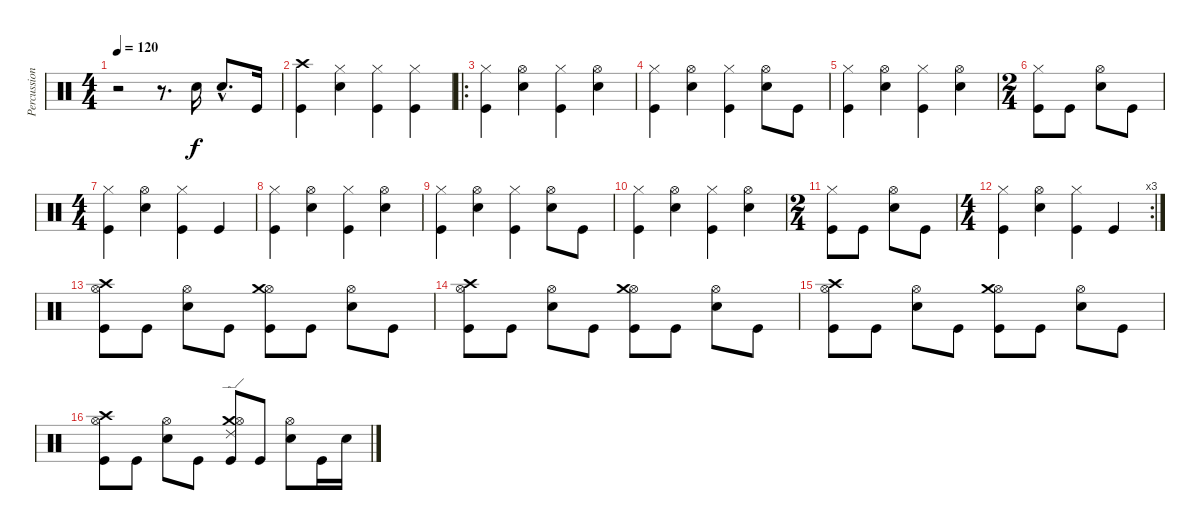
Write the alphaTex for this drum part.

\track ("Percussions" "Percussion") {instrument percussion}
\staff {score}
\articulation defaults
\ts (4 4)
\tempo 120
\clef neutral
\ks c
r.2{dy f} r.8{d} "Snare (hit) 2".16 "Snare (hit) 2"{hac}.8{d} "Kick (hit)".16 |
("Crash high (hit)" "Kick (hit)").4 ("Snare (hit) 2" "Hi-Hat (closed)").4 ("Kick (hit)" "Hi-Hat (closed)").4 ("Kick (hit)" "Hi-Hat (closed)").4 |
\ro
("Hi-Hat (closed)" "Kick (hit)").4 ("Snare (hit) 2" "Hi-Hat (open)").4 ("Hi-Hat (closed)" "Kick (hit)").4 ("Snare (hit) 2" "Hi-Hat (open)").4 |
("Hi-Hat (closed)" "Kick (hit)").4 ("Snare (hit) 2" "Hi-Hat (open)").4 ("Kick (hit)" "Hi-Hat (closed)").4 ("Snare (hit) 2" "Hi-Hat (open)").8 "Kick (hit)".8 |
("Hi-Hat (closed)" "Kick (hit)").4 ("Snare (hit) 2" "Hi-Hat (open)").4 ("Hi-Hat (closed)" "Kick (hit)").4 ("Snare (hit) 2" "Hi-Hat (open)").4 |
\ts (2 4)
("Kick (hit)" "Hi-Hat (closed)").8 "Kick (hit)".8 ("Snare (hit) 2" "Hi-Hat (open)").8 "Kick (hit)".8 |
\ts (4 4)
("Kick (hit)" "Hi-Hat (closed)").4 ("Snare (hit) 2" "Hi-Hat (open)").4 ("Kick (hit)" "Hi-Hat (closed)").4 "Kick (hit)".4 |
("Hi-Hat (closed)" "Kick (hit)").4 ("Snare (hit) 2" "Hi-Hat (open)").4 ("Hi-Hat (closed)" "Kick (hit)").4 ("Snare (hit) 2" "Hi-Hat (open)").4 |
("Hi-Hat (closed)" "Kick (hit)").4 ("Snare (hit) 2" "Hi-Hat (open)").4 ("Kick (hit)" "Hi-Hat (closed)").4 ("Snare (hit) 2" "Hi-Hat (open)").8 "Kick (hit)".8 |
("Hi-Hat (closed)" "Kick (hit)").4 ("Snare (hit) 2" "Hi-Hat (open)").4 ("Hi-Hat (closed)" "Kick (hit)").4 ("Snare (hit) 2" "Hi-Hat (open)").4 |
\ts (2 4)
("Kick (hit)" "Hi-Hat (closed)").8 "Kick (hit)".8 ("Snare (hit) 2" "Hi-Hat (open)").8 "Kick (hit)".8 |
\rc 3
\ts (4 4)
("Kick (hit)" "Hi-Hat (closed)").4 ("Snare (hit) 2" "Hi-Hat (open)").4 ("Kick (hit)" "Hi-Hat (closed)").4 "Kick (hit)".4 |
("Crash high (hit)" "Kick (hit)" "Hi-Hat (open)").8 "Kick (hit)".8 ("Snare (hit) 2" "Hi-Hat (open)").8 "Kick (hit)".8 ("Hi-Hat (open)" "Crash medium (hit)" "Kick (hit)").8 "Kick (hit)".8 ("Snare (hit) 2" "Hi-Hat (open)").8 "Kick (hit)".8 |
("Crash high (hit)" "Kick (hit)" "Hi-Hat (open)").8 "Kick (hit)".8 ("Snare (hit) 2" "Hi-Hat (open)").8 "Kick (hit)".8 ("Hi-Hat (open)" "Crash medium (hit)" "Kick (hit)").8 "Kick (hit)".8 ("Snare (hit) 2" "Hi-Hat (open)").8 "Kick (hit)".8 |
("Crash high (hit)" "Kick (hit)" "Hi-Hat (open)").8 "Kick (hit)".8 ("Snare (hit) 2" "Hi-Hat (open)").8 "Kick (hit)".8 ("Hi-Hat (open)" "Crash medium (hit)" "Kick (hit)").8 "Kick (hit)".8 ("Snare (hit) 2" "Hi-Hat (open)").8 "Kick (hit)".8 |
("Hi-Hat (open)" "Crash high (hit)" "Kick (hit)").8 "Kick (hit)".8 ("Snare (hit) 2" "Hi-Hat (open)").8 "Kick (hit)".8 ("Kick (hit)" "Crash medium (hit)" "Ride (edge) 2" "Hi-Hat (open)").8 "Kick (hit)".8 ("Snare (hit) 2" "Hi-Hat (open)").8 "Kick (hit)".16 "Snare (hit) 2".16
